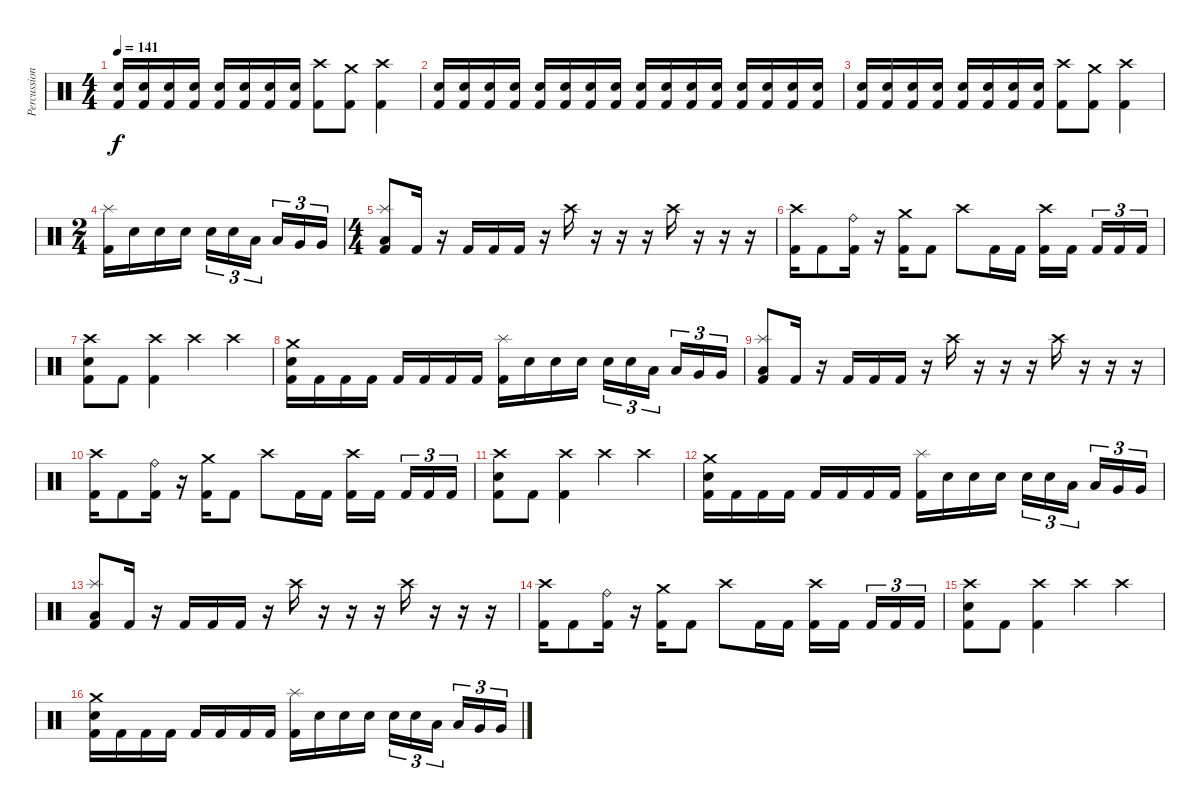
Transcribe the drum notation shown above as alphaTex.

\track ("Percussion" "Percussion") {instrument percussion}
\staff {score}
\articulation defaults
\ts (4 4)
\tempo 141
\clef neutral
\ks c
("Electric Snare (hit)" "Kick (hit) 2").16{dy f} ("Electric Snare (hit)" "Kick (hit) 2").16 ("Electric Snare (hit)" "Kick (hit) 2").16 ("Electric Snare (hit)" "Kick (hit) 2").16 ("Electric Snare (hit)" "Kick (hit) 2").16 ("Electric Snare (hit)" "Kick (hit) 2").16 ("Electric Snare (hit)" "Kick (hit) 2").16 ("Electric Snare (hit)" "Kick (hit) 2").16 ("Crash high (hit)" "Kick (hit) 2").8 ("Crash medium (hit)" "Kick (hit) 2").8 ("Crash high (hit)" "Kick (hit) 2").4 |
("Electric Snare (hit)" "Kick (hit) 2").16 ("Electric Snare (hit)" "Kick (hit) 2").16 ("Electric Snare (hit)" "Kick (hit) 2").16 ("Electric Snare (hit)" "Kick (hit) 2").16 ("Electric Snare (hit)" "Kick (hit) 2").16 ("Electric Snare (hit)" "Kick (hit) 2").16 ("Electric Snare (hit)" "Kick (hit) 2").16 ("Electric Snare (hit)" "Kick (hit) 2").16 ("Electric Snare (hit)" "Kick (hit) 2").16 ("Electric Snare (hit)" "Kick (hit) 2").16 ("Electric Snare (hit)" "Kick (hit) 2").16 ("Electric Snare (hit)" "Kick (hit) 2").16 ("Electric Snare (hit)" "Kick (hit) 2").16 ("Electric Snare (hit)" "Kick (hit) 2").16 ("Electric Snare (hit)" "Kick (hit) 2").16 ("Electric Snare (hit)" "Kick (hit) 2").16 |
("Electric Snare (hit)" "Kick (hit) 2").16 ("Electric Snare (hit)" "Kick (hit) 2").16 ("Electric Snare (hit)" "Kick (hit) 2").16 ("Electric Snare (hit)" "Kick (hit) 2").16 ("Electric Snare (hit)" "Kick (hit) 2").16 ("Electric Snare (hit)" "Kick (hit) 2").16 ("Electric Snare (hit)" "Kick (hit) 2").16 ("Electric Snare (hit)" "Kick (hit) 2").16 ("Crash high (hit)" "Kick (hit) 2").8 ("Crash medium (hit)" "Kick (hit) 2").8 ("Crash high (hit)" "Kick (hit) 2").4 |
\ts (2 4)
("Splash (hit)" "Kick (hit) 2").16 "Electric Snare (hit)".16 "Electric Snare (hit)".16 "Electric Snare (hit)".16 "Electric Snare (hit)".16{tu (3 2)} "Electric Snare (hit)".16{tu (3 2)} "Low Tom (hit)".16{tu (3 2) beam splitsecondary} "Low Tom (hit)".16{tu (3 2)} "Very Low Tom (hit)".16{tu (3 2)} "Very Low Tom (hit)".16{tu (3 2)} |
\ts (4 4)
("Splash (hit)" "Low Floor Tom (hit)" "Kick (hit) 2").8 "Kick (hit) 2".16 r.16 "Kick (hit) 2".16 "Kick (hit) 2".16 "Kick (hit) 2".16 r.16 "Crash high (hit)".16 r.16 r.16 r.16 "Crash high (hit)".16 r.16 r.16 r.16 |
("Crash high (hit)" "Kick (hit) 2").16 "Kick (hit) 2".8 ("Ride (bell)" "Kick (hit) 2").16 r.16 ("Crash medium (hit)" "Kick (hit) 2").16 "Kick (hit) 2".8 "Crash high (hit)".8 "Kick (hit) 2".16 "Kick (hit) 2".16 ("Crash high (hit)" "Kick (hit) 2").16 "Kick (hit) 2".16{beam splitsecondary} "Kick (hit) 2".16{tu (3 2)} "Kick (hit) 2".16{tu (3 2)} "Kick (hit) 2".16{tu (3 2)} |
("Crash high (hit)" "Electric Snare (hit)" "Kick (hit) 2").8 "Kick (hit) 2".8 ("Crash high (hit)" "Kick (hit) 2").4 "Crash high (hit)".4 "Crash high (hit)".4 |
("Crash medium (hit)" "Electric Snare (hit)" "Kick (hit) 2").16 "Kick (hit) 2".16 "Kick (hit) 2".16 "Kick (hit) 2".16 "Kick (hit) 2".16 "Kick (hit) 2".16 "Kick (hit) 2".16 "Kick (hit) 2".16 ("Splash (hit)" "Kick (hit) 2").16 "Electric Snare (hit)".16 "Electric Snare (hit)".16 "Electric Snare (hit)".16 "Electric Snare (hit)".16{tu (3 2)} "Electric Snare (hit)".16{tu (3 2)} "Low Tom (hit)".16{tu (3 2) beam splitsecondary} "Low Tom (hit)".16{tu (3 2)} "Very Low Tom (hit)".16{tu (3 2)} "Very Low Tom (hit)".16{tu (3 2)} |
("Splash (hit)" "Low Floor Tom (hit)" "Kick (hit) 2").8 "Kick (hit) 2".16 r.16 "Kick (hit) 2".16 "Kick (hit) 2".16 "Kick (hit) 2".16 r.16 "Crash high (hit)".16 r.16 r.16 r.16 "Crash high (hit)".16 r.16 r.16 r.16 |
("Crash high (hit)" "Kick (hit) 2").16 "Kick (hit) 2".8 ("Ride (bell)" "Kick (hit) 2").16 r.16 ("Crash medium (hit)" "Kick (hit) 2").16 "Kick (hit) 2".8 "Crash high (hit)".8 "Kick (hit) 2".16 "Kick (hit) 2".16 ("Crash high (hit)" "Kick (hit) 2").16 "Kick (hit) 2".16{beam splitsecondary} "Kick (hit) 2".16{tu (3 2)} "Kick (hit) 2".16{tu (3 2)} "Kick (hit) 2".16{tu (3 2)} |
("Crash high (hit)" "Electric Snare (hit)" "Kick (hit) 2").8 "Kick (hit) 2".8 ("Crash high (hit)" "Kick (hit) 2").4 "Crash high (hit)".4 "Crash high (hit)".4 |
("Crash medium (hit)" "Electric Snare (hit)" "Kick (hit) 2").16 "Kick (hit) 2".16 "Kick (hit) 2".16 "Kick (hit) 2".16 "Kick (hit) 2".16 "Kick (hit) 2".16 "Kick (hit) 2".16 "Kick (hit) 2".16 ("Splash (hit)" "Kick (hit) 2").16 "Electric Snare (hit)".16 "Electric Snare (hit)".16 "Electric Snare (hit)".16 "Electric Snare (hit)".16{tu (3 2)} "Electric Snare (hit)".16{tu (3 2)} "Low Tom (hit)".16{tu (3 2) beam splitsecondary} "Low Tom (hit)".16{tu (3 2)} "Very Low Tom (hit)".16{tu (3 2)} "Very Low Tom (hit)".16{tu (3 2)} |
("Splash (hit)" "Low Floor Tom (hit)" "Kick (hit) 2").8 "Kick (hit) 2".16 r.16 "Kick (hit) 2".16 "Kick (hit) 2".16 "Kick (hit) 2".16 r.16 "Crash high (hit)".16 r.16 r.16 r.16 "Crash high (hit)".16 r.16 r.16 r.16 |
("Crash high (hit)" "Kick (hit) 2").16 "Kick (hit) 2".8 ("Ride (bell)" "Kick (hit) 2").16 r.16 ("Crash medium (hit)" "Kick (hit) 2").16 "Kick (hit) 2".8 "Crash high (hit)".8 "Kick (hit) 2".16 "Kick (hit) 2".16 ("Crash high (hit)" "Kick (hit) 2").16 "Kick (hit) 2".16{beam splitsecondary} "Kick (hit) 2".16{tu (3 2)} "Kick (hit) 2".16{tu (3 2)} "Kick (hit) 2".16{tu (3 2)} |
("Crash high (hit)" "Electric Snare (hit)" "Kick (hit) 2").8 "Kick (hit) 2".8 ("Crash high (hit)" "Kick (hit) 2").4 "Crash high (hit)".4 "Crash high (hit)".4 |
("Crash medium (hit)" "Electric Snare (hit)" "Kick (hit) 2").16 "Kick (hit) 2".16 "Kick (hit) 2".16 "Kick (hit) 2".16 "Kick (hit) 2".16 "Kick (hit) 2".16 "Kick (hit) 2".16 "Kick (hit) 2".16 ("Splash (hit)" "Kick (hit) 2").16 "Electric Snare (hit)".16 "Electric Snare (hit)".16 "Electric Snare (hit)".16 "Electric Snare (hit)".16{tu (3 2)} "Electric Snare (hit)".16{tu (3 2)} "Low Tom (hit)".16{tu (3 2) beam splitsecondary} "Low Tom (hit)".16{tu (3 2)} "Very Low Tom (hit)".16{tu (3 2)} "Very Low Tom (hit)".16{tu (3 2)}
